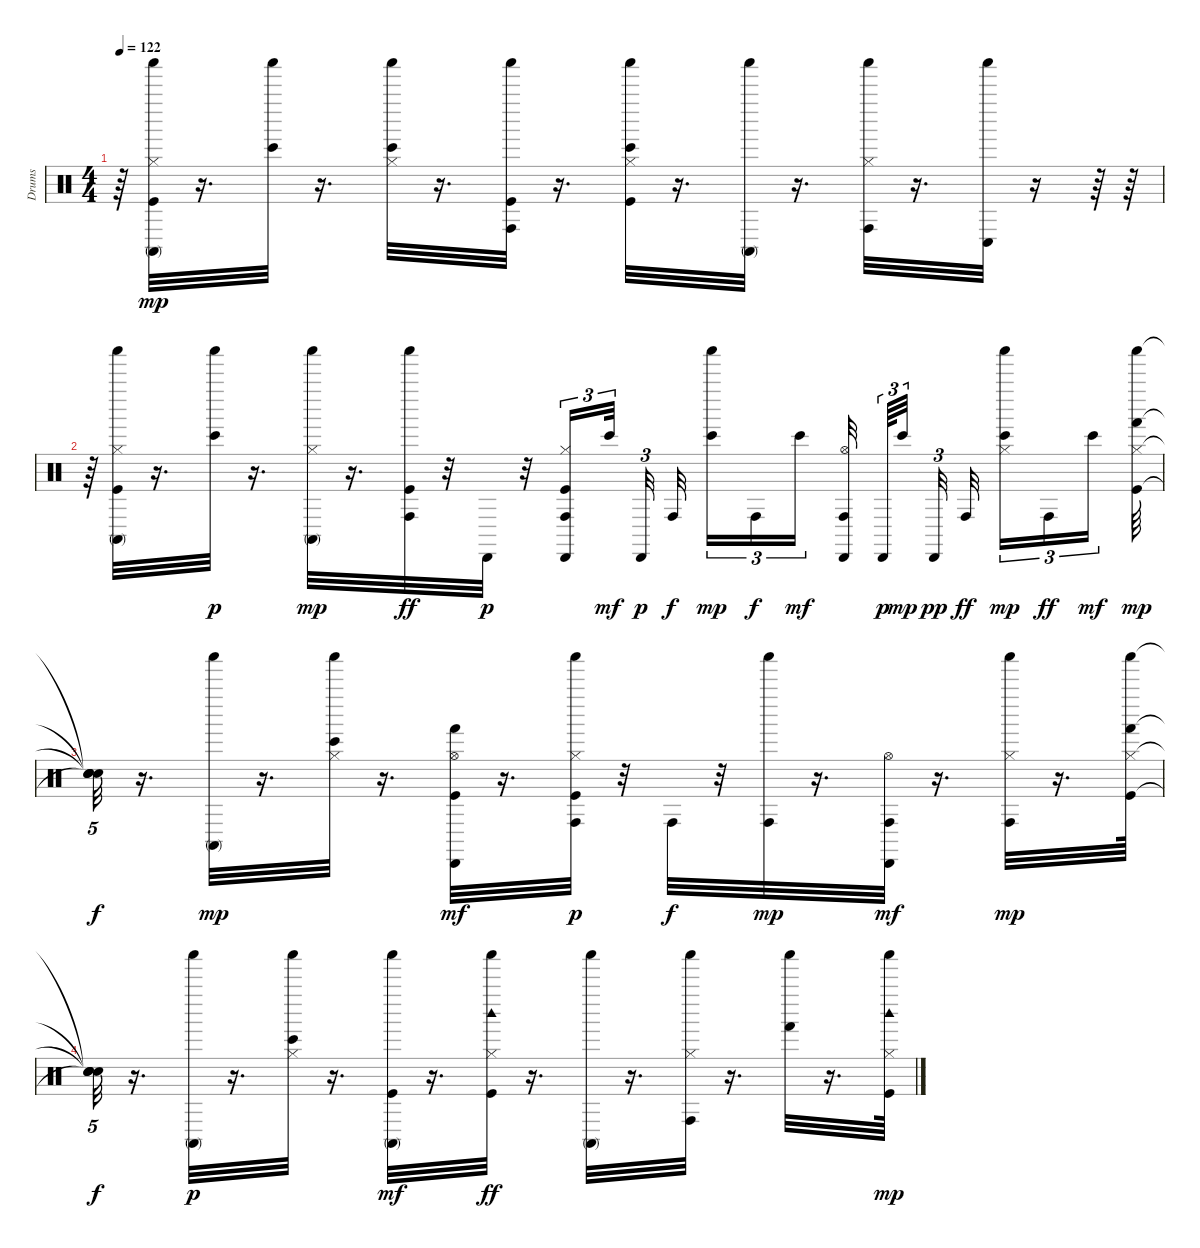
\track ("Drums" "Drums") {instrument percussion}
\staff {score}
\articulation defaults
\ts (4 4)
\tempo 122
\clef neutral
\ks c
r.64{dy p} ("Shaker (hit)" "Kick (hit)" "Hi-Hat (closed)" "Conga high (mute)").32{dy mp} r.16{d} ("Shaker (hit)" "Bongo High (hit)").32 r.16{d} ("Shaker (hit)" "Hi-Hat (closed)" "Bongo High (hit)").32 r.16{d} ("Shaker (hit)" "Kick (hit)" "Conga high (hit)").32 r.16{d} ("Shaker (hit)" "Kick (hit)" "Hi-Hat (closed)" "Bongo High (hit)").32 r.16{d} ("Shaker (hit)" "Conga high (mute)").32 r.16{d} ("Hi-Hat (closed)" "Conga high (hit)" "Shaker (hit)").32 r.16{d} ("Shaker (hit)" "Conga low (hit)").32 r.16 r.64 r.64 |
r.64 ("Kick (hit)" "Hi-Hat (closed)" "Conga high (mute)" "Shaker (hit)").32 r.16{d} ("Bongo High (hit)" "Shaker (hit)").32{dy p} r.16{d} ("Shaker (hit)" "Hi-Hat (closed)" "Conga high (mute)").32{dy mp} r.16{d} ("Shaker (hit)" "Kick (hit)" "Conga high (hit)").32{dy ff} r.32 "Cabasa (hit)".32{dy p} r.32 ("Kick (hit)" "Hi-Hat (closed)" "Conga high (hit)" "Cabasa (hit)").16{tu (3 2)} "Bongo High (hit)".32{tu (3 2) dy mf beam splitsecondary} "Cabasa (hit)".32{tu (3 2) dy p beam splitsecondary} "Conga high (hit)".32{dy f beam splitsecondary} ("Shaker (hit)" "Bongo High (hit)").16{tu (3 2) dy mp} "Conga high (hit)".16{tu (3 2) dy f} "Bongo High (hit)".16{tu (3 2) dy mf} ("Hi-Hat (open)" "Conga high (hit)" "Cabasa (hit)").32{beam splitsecondary} "Cabasa (hit)".64{tu (3 2) dy p} "Bongo High (hit)".32{tu (3 2) dy mp beam splitsecondary} "Cabasa (hit)".32{tu (3 2) dy pp beam splitsecondary} "Conga high (hit)".32{dy ff beam splitsecondary} ("Shaker (hit)" "Hi-Hat (closed)" "Bongo High (hit)").16{tu (3 2) dy mp} "Conga high (hit)".16{tu (3 2) dy ff} "Bongo High (hit)".16{tu (3 2) dy mf beam splitsecondary} ("Kick (hit)" "Hi-Hat (closed)" "Hand (hit)" "Shaker (hit)").64{dy mp} |
("Snare (hit)"{t} "Snare (hit)"{t} "Snare (hit)"{t} "Snare (hit)"{t}).32{tu (5 4) dy f} r.16{d} ("Shaker (hit)" "Conga high (mute)").32{dy mp} r.16{d} ("Bongo High (hit)" "Shaker (hit)" "Hi-Hat (closed)").32 r.16{d} ("Kick (hit)" "Hi-Hat (open)" "Cabasa (hit)" "Hand (hit)").32{dy mf} r.16{d} ("Conga high (hit)" "Shaker (hit)" "Kick (hit)" "Hi-Hat (closed)").32{dy p} r.32 "Conga high (hit)".32{dy f} r.32 ("Conga high (hit)" "Shaker (hit)").32{dy mp} r.16{d} ("Hi-Hat (open)" "Conga high (hit)" "Cabasa (hit)").32{dy mf} r.16{d} ("Conga high (hit)" "Shaker (hit)" "Hi-Hat (closed)").32{dy mp} r.16{d} ("Hand (hit)" "Kick (hit)" "Hi-Hat (closed)" "Shaker (hit)").64 |
("Snare (hit)"{t} "Snare (hit)"{t} "Snare (hit)"{t} "Snare (hit)"{t}).32{tu (5 4) dy f} r.16{d} ("Conga high (mute)" "Shaker (hit)").32{dy p} r.16{d} ("Bongo High (hit)" "Shaker (hit)" "Hi-Hat (closed)").32 r.16{d} ("Shaker (hit)" "Kick (hit)" "Conga high (mute)").32{dy mf} r.16{d} ("Shaker (hit)" "Kick (hit)" "Hi-Hat (closed)" "Woodblock high (hit)").32{dy ff} r.16{d} ("Shaker (hit)" "Conga high (mute)").32 r.16{d} ("Shaker (hit)" "Hi-Hat (closed)" "Conga high (hit)").32 r.16{d} ("Shaker (hit)" "Hand (hit)").32 r.16{d} ("Shaker (hit)" "Kick (hit)" "Hi-Hat (closed)" "Woodblock high (hit)").64{dy mp}
